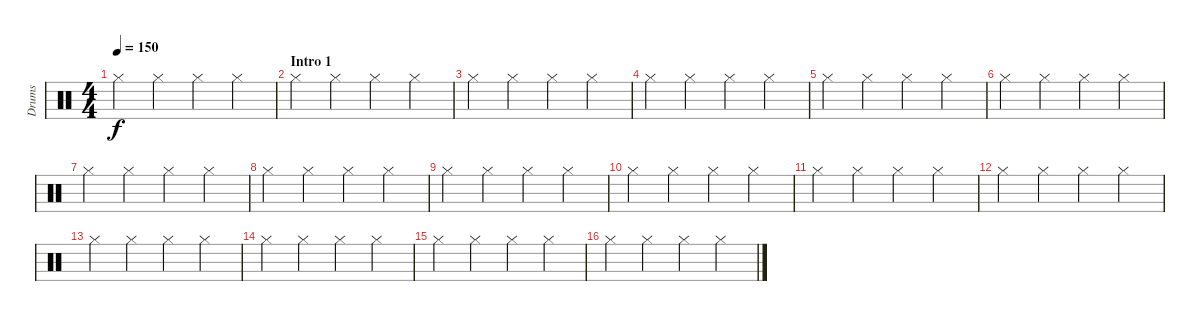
\track ("Drums" "Drums") {instrument percussion}
\staff {score}
\articulation defaults
\ts (4 4)
\tempo 150
\clef neutral
\ks c "Hi-Hat (closed)".4{dy f} "Hi-Hat (closed)".4 "Hi-Hat (closed)".4 "Hi-Hat (closed)".4
|
\section ("" "Intro 1")
"Hi-Hat (closed)".4 "Hi-Hat (closed)".4 "Hi-Hat (closed)".4 "Hi-Hat (closed)".4 |
"Hi-Hat (closed)".4 "Hi-Hat (closed)".4 "Hi-Hat (closed)".4 "Hi-Hat (closed)".4 |
"Hi-Hat (closed)".4 "Hi-Hat (closed)".4 "Hi-Hat (closed)".4 "Hi-Hat (closed)".4 |
"Hi-Hat (closed)".4 "Hi-Hat (closed)".4 "Hi-Hat (closed)".4 "Hi-Hat (closed)".4 |
"Hi-Hat (closed)".4 "Hi-Hat (closed)".4 "Hi-Hat (closed)".4 "Hi-Hat (closed)".4 |
"Hi-Hat (closed)".4 "Hi-Hat (closed)".4 "Hi-Hat (closed)".4 "Hi-Hat (closed)".4 |
"Hi-Hat (closed)".4 "Hi-Hat (closed)".4 "Hi-Hat (closed)".4 "Hi-Hat (closed)".4 |
"Hi-Hat (closed)".4 "Hi-Hat (closed)".4 "Hi-Hat (closed)".4 "Hi-Hat (closed)".4 |
"Hi-Hat (closed)".4 "Hi-Hat (closed)".4 "Hi-Hat (closed)".4 "Hi-Hat (closed)".4 |
"Hi-Hat (closed)".4 "Hi-Hat (closed)".4 "Hi-Hat (closed)".4 "Hi-Hat (closed)".4 |
"Hi-Hat (closed)".4 "Hi-Hat (closed)".4 "Hi-Hat (closed)".4 "Hi-Hat (closed)".4 |
"Hi-Hat (closed)".4 "Hi-Hat (closed)".4 "Hi-Hat (closed)".4 "Hi-Hat (closed)".4 |
"Hi-Hat (closed)".4 "Hi-Hat (closed)".4 "Hi-Hat (closed)".4 "Hi-Hat (closed)".4 |
"Hi-Hat (closed)".4 "Hi-Hat (closed)".4 "Hi-Hat (closed)".4 "Hi-Hat (closed)".4 |
"Hi-Hat (closed)".4 "Hi-Hat (closed)".4 "Hi-Hat (closed)".4 "Hi-Hat (closed)".4
